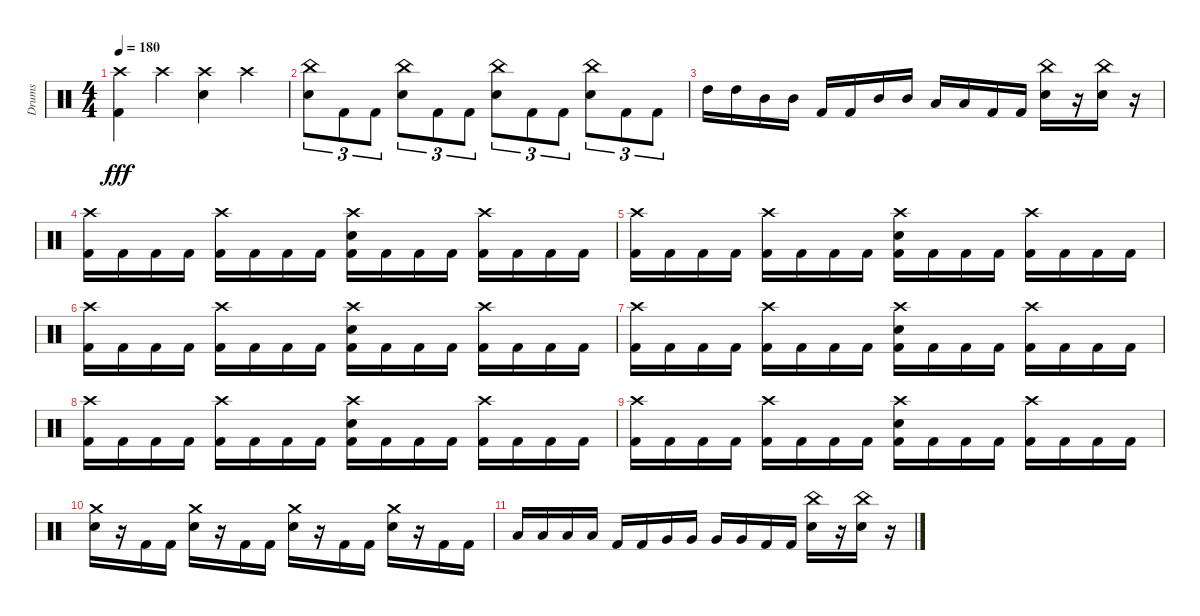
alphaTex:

\track ("Drums" "Drums") {instrument percussion}
\staff {score}
\articulation defaults
\ts (4 4)
\tempo 180
\clef neutral
\ks c
("Crash high (hit)" "Kick (hit) 2").4{dy fff} "Crash high (hit)".4 ("Crash high (hit)" "Electric Snare (hit)").4 "Crash high (hit)".4 |
("China (hit)" "Electric Snare (hit)").8{tu (3 2)} "Kick (hit) 2".8{tu (3 2)} "Kick (hit) 2".8{tu (3 2)} ("China (hit)" "Electric Snare (hit)").8{tu (3 2)} "Kick (hit) 2".8{tu (3 2)} "Kick (hit) 2".8{tu (3 2)} ("China (hit)" "Electric Snare (hit)").8{tu (3 2)} "Kick (hit) 2".8{tu (3 2)} "Kick (hit) 2".8{tu (3 2)} ("China (hit)" "Electric Snare (hit)").8{tu (3 2)} "Kick (hit) 2".8{tu (3 2)} "Kick (hit) 2".8{tu (3 2)} |
"High Tom (hit)".16 "High Tom (hit)".16 "Mid Tom (hit)".16 "Mid Tom (hit)".16 "Kick (hit) 2".16 "Kick (hit) 2".16 "Mid Tom (hit)".16 "Mid Tom (hit)".16 "Low Tom (hit)".16 "Low Tom (hit)".16 "Kick (hit) 2".16 "Kick (hit) 2".16 ("China (hit)" "Electric Snare (hit)").16 r.16 ("China (hit)" "Electric Snare (hit)").16 r.16 |
("Crash high (hit)" "Kick (hit) 2").16 "Kick (hit) 2".16 "Kick (hit) 2".16 "Kick (hit) 2".16 ("Crash high (hit)" "Kick (hit) 2").16 "Kick (hit) 2".16 "Kick (hit) 2".16 "Kick (hit) 2".16 ("Crash high (hit)" "Electric Snare (hit)" "Kick (hit) 2").16 "Kick (hit) 2".16 "Kick (hit) 2".16 "Kick (hit) 2".16 ("Crash high (hit)" "Kick (hit) 2").16 "Kick (hit) 2".16 "Kick (hit) 2".16 "Kick (hit) 2".16 |
("Crash high (hit)" "Kick (hit) 2").16 "Kick (hit) 2".16 "Kick (hit) 2".16 "Kick (hit) 2".16 ("Crash high (hit)" "Kick (hit) 2").16 "Kick (hit) 2".16 "Kick (hit) 2".16 "Kick (hit) 2".16 ("Crash high (hit)" "Electric Snare (hit)" "Kick (hit) 2").16 "Kick (hit) 2".16 "Kick (hit) 2".16 "Kick (hit) 2".16 ("Crash high (hit)" "Kick (hit) 2").16 "Kick (hit) 2".16 "Kick (hit) 2".16 "Kick (hit) 2".16 |
("Crash high (hit)" "Kick (hit) 2").16 "Kick (hit) 2".16 "Kick (hit) 2".16 "Kick (hit) 2".16 ("Crash high (hit)" "Kick (hit) 2").16 "Kick (hit) 2".16 "Kick (hit) 2".16 "Kick (hit) 2".16 ("Crash high (hit)" "Electric Snare (hit)" "Kick (hit) 2").16 "Kick (hit) 2".16 "Kick (hit) 2".16 "Kick (hit) 2".16 ("Crash high (hit)" "Kick (hit) 2").16 "Kick (hit) 2".16 "Kick (hit) 2".16 "Kick (hit) 2".16 |
("Crash high (hit)" "Kick (hit) 2").16 "Kick (hit) 2".16 "Kick (hit) 2".16 "Kick (hit) 2".16 ("Crash high (hit)" "Kick (hit) 2").16 "Kick (hit) 2".16 "Kick (hit) 2".16 "Kick (hit) 2".16 ("Crash high (hit)" "Electric Snare (hit)" "Kick (hit) 2").16 "Kick (hit) 2".16 "Kick (hit) 2".16 "Kick (hit) 2".16 ("Crash high (hit)" "Kick (hit) 2").16 "Kick (hit) 2".16 "Kick (hit) 2".16 "Kick (hit) 2".16 |
("Crash high (hit)" "Kick (hit) 2").16 "Kick (hit) 2".16 "Kick (hit) 2".16 "Kick (hit) 2".16 ("Crash high (hit)" "Kick (hit) 2").16 "Kick (hit) 2".16 "Kick (hit) 2".16 "Kick (hit) 2".16 ("Crash high (hit)" "Electric Snare (hit)" "Kick (hit) 2").16 "Kick (hit) 2".16 "Kick (hit) 2".16 "Kick (hit) 2".16 ("Crash high (hit)" "Kick (hit) 2").16 "Kick (hit) 2".16 "Kick (hit) 2".16 "Kick (hit) 2".16 |
("Crash high (hit)" "Kick (hit) 2").16 "Kick (hit) 2".16 "Kick (hit) 2".16 "Kick (hit) 2".16 ("Crash high (hit)" "Kick (hit) 2").16 "Kick (hit) 2".16 "Kick (hit) 2".16 "Kick (hit) 2".16 ("Crash high (hit)" "Electric Snare (hit)" "Kick (hit) 2").16 "Kick (hit) 2".16 "Kick (hit) 2".16 "Kick (hit) 2".16 ("Crash high (hit)" "Kick (hit) 2").16 "Kick (hit) 2".16 "Kick (hit) 2".16 "Kick (hit) 2".16 |
("Crash medium (hit)" "Electric Snare (hit)").16 r.16 "Kick (hit) 2".16 "Kick (hit) 2".16 ("Crash medium (hit)" "Electric Snare (hit)").16 r.16 "Kick (hit) 2".16 "Kick (hit) 2".16 ("Crash medium (hit)" "Electric Snare (hit)").16 r.16 "Kick (hit) 2".16 "Kick (hit) 2".16 ("Crash medium (hit)" "Electric Snare (hit)").16 r.16 "Kick (hit) 2".16 "Kick (hit) 2".16 |
"Low Tom (hit)".16 "Low Tom (hit)".16 "Low Tom (hit)".16 "Low Tom (hit)".16 "Kick (hit) 2".16 "Kick (hit) 2".16 "Very Low Tom (hit)".16 "Very Low Tom (hit)".16 "Very Low Tom (hit)".16 "Very Low Tom (hit)".16 "Kick (hit) 2".16 "Kick (hit) 2".16 ("China (hit)" "Electric Snare (hit)").16 r.16 ("China (hit)" "Electric Snare (hit)").16 r.16
